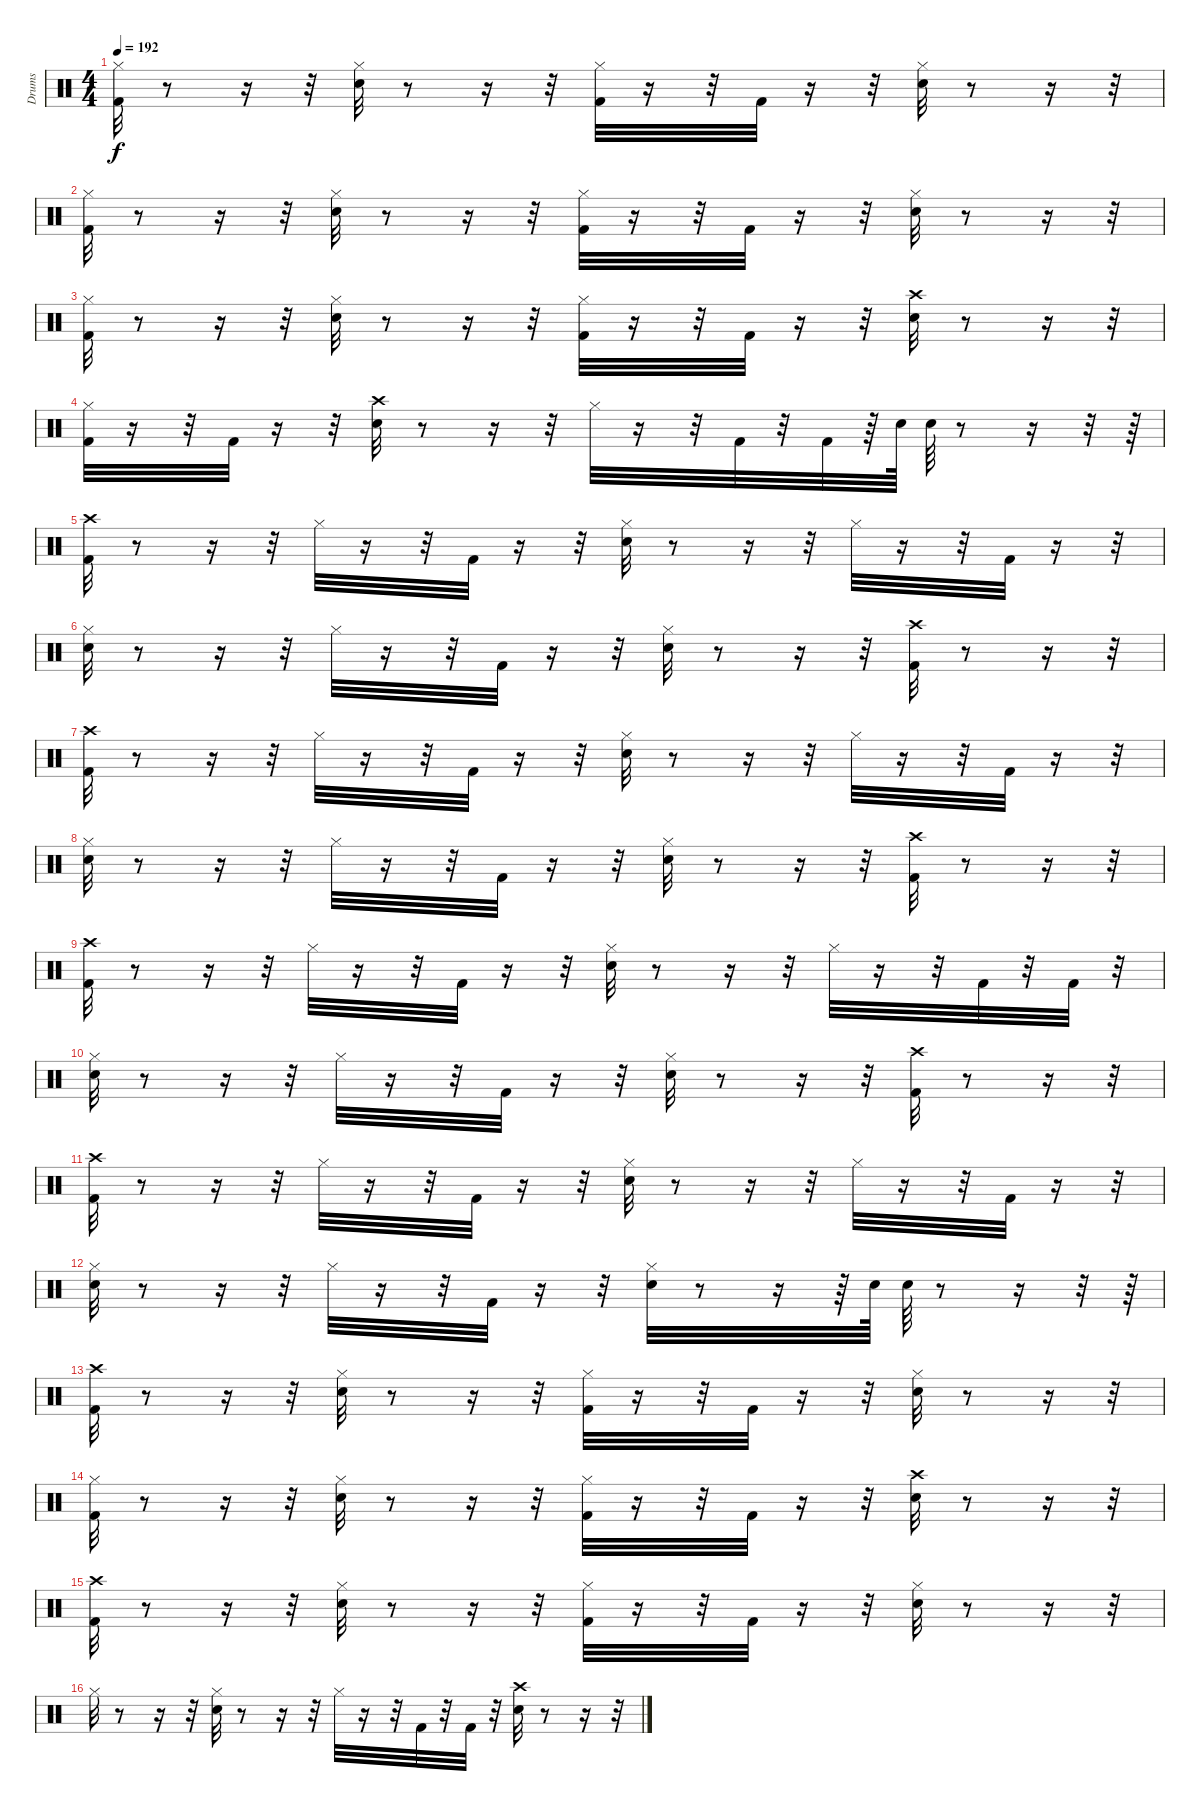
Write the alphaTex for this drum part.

\track ("Drums" "Drums") {instrument percussion}
\staff {score}
\articulation defaults
\ts (4 4)
\tempo 192
\clef neutral
\ks c
("Kick (hit) 2" "Hi-Hat (closed)").32{dy f} r.8 r.16 r.32 ("Snare (hit) 2" "Hi-Hat (closed)").32 r.8 r.16 r.32 ("Kick (hit) 2" "Hi-Hat (closed)").32 r.16 r.32 "Kick (hit) 2".32 r.16 r.32 ("Snare (hit) 2" "Hi-Hat (closed)").32 r.8 r.16 r.32 |
("Kick (hit) 2" "Hi-Hat (closed)").32 r.8 r.16 r.32 ("Snare (hit) 2" "Hi-Hat (closed)").32 r.8 r.16 r.32 ("Kick (hit) 2" "Hi-Hat (closed)").32 r.16 r.32 "Kick (hit) 2".32 r.16 r.32 ("Snare (hit) 2" "Hi-Hat (closed)").32 r.8 r.16 r.32 |
("Kick (hit) 2" "Hi-Hat (closed)").32 r.8 r.16 r.32 ("Snare (hit) 2" "Hi-Hat (closed)").32 r.8 r.16 r.32 ("Kick (hit) 2" "Hi-Hat (closed)").32 r.16 r.32 "Kick (hit) 2".32 r.16 r.32 ("Crash high (hit)" "Snare (hit) 2").32 r.8 r.16 r.32 |
("Kick (hit) 2" "Hi-Hat (closed)").32 r.16 r.32 "Kick (hit) 2".32 r.16 r.32 ("Crash high (hit)" "Snare (hit) 2").32 r.8 r.16 r.32 "Hi-Hat (closed)".32 r.16 r.32 "Kick (hit) 2".32 r.32 "Kick (hit) 2".32 r.64 "Snare (hit) 2".64 "Snare (hit) 2".64 r.8 r.16 r.32 r.64 |
("Kick (hit) 2" "Crash high (hit)").32 r.8 r.16 r.32 "Hi-Hat (closed)".32 r.16 r.32 "Kick (hit) 2".32 r.16 r.32 ("Hi-Hat (closed)" "Snare (hit) 2").32 r.8 r.16 r.32 "Hi-Hat (closed)".32 r.16 r.32 "Kick (hit) 2".32 r.16 r.32 |
("Hi-Hat (closed)" "Snare (hit) 2").32 r.8 r.16 r.32 "Hi-Hat (closed)".32 r.16 r.32 "Kick (hit) 2".32 r.16 r.32 ("Snare (hit) 2" "Hi-Hat (closed)").32 r.8 r.16 r.32 ("Crash high (hit)" "Kick (hit) 2").32 r.8 r.16 r.32 |
("Kick (hit) 2" "Crash high (hit)").32 r.8 r.16 r.32 "Hi-Hat (closed)".32 r.16 r.32 "Kick (hit) 2".32 r.16 r.32 ("Snare (hit) 2" "Hi-Hat (closed)").32 r.8 r.16 r.32 "Hi-Hat (closed)".32 r.16 r.32 "Kick (hit) 2".32 r.16 r.32 |
("Hi-Hat (closed)" "Snare (hit) 2").32 r.8 r.16 r.32 "Hi-Hat (closed)".32 r.16 r.32 "Kick (hit) 2".32 r.16 r.32 ("Snare (hit) 2" "Hi-Hat (closed)").32 r.8 r.16 r.32 ("Crash high (hit)" "Kick (hit) 2").32 r.8 r.16 r.32 |
("Kick (hit) 2" "Crash high (hit)").32 r.8 r.16 r.32 "Hi-Hat (closed)".32 r.16 r.32 "Kick (hit) 2".32 r.16 r.32 ("Snare (hit) 2" "Hi-Hat (closed)").32 r.8 r.16 r.32 "Hi-Hat (closed)".32 r.16 r.32 "Kick (hit) 2".32 r.32 "Kick (hit) 2".32 r.32 |
("Hi-Hat (closed)" "Snare (hit) 2").32 r.8 r.16 r.32 "Hi-Hat (closed)".32 r.16 r.32 "Kick (hit) 2".32 r.16 r.32 ("Snare (hit) 2" "Hi-Hat (closed)").32 r.8 r.16 r.32 ("Crash high (hit)" "Kick (hit) 2").32 r.8 r.16 r.32 |
("Kick (hit) 2" "Crash high (hit)").32 r.8 r.16 r.32 "Hi-Hat (closed)".32 r.16 r.32 "Kick (hit) 2".32 r.16 r.32 ("Snare (hit) 2" "Hi-Hat (closed)").32 r.8 r.16 r.32 "Hi-Hat (closed)".32 r.16 r.32 "Kick (hit) 2".32 r.16 r.32 |
("Hi-Hat (closed)" "Snare (hit) 2").32 r.8 r.16 r.32 "Hi-Hat (closed)".32 r.16 r.32 "Kick (hit) 2".32 r.16 r.32 ("Snare (hit) 2" "Hi-Hat (closed)").32 r.8 r.16 r.64 "Snare (hit) 2".64 "Snare (hit) 2".64 r.8 r.16 r.32 r.64 |
("Kick (hit) 2" "Crash high (hit)").32 r.8 r.16 r.32 ("Hi-Hat (closed)" "Snare (hit) 2").32 r.8 r.16 r.32 ("Hi-Hat (closed)" "Kick (hit) 2").32 r.16 r.32 "Kick (hit) 2".32 r.16 r.32 ("Snare (hit) 2" "Hi-Hat (closed)").32 r.8 r.16 r.32 |
("Kick (hit) 2" "Hi-Hat (closed)").32 r.8 r.16 r.32 ("Snare (hit) 2" "Hi-Hat (closed)").32 r.8 r.16 r.32 ("Kick (hit) 2" "Hi-Hat (closed)").32 r.16 r.32 "Kick (hit) 2".32 r.16 r.32 ("Crash high (hit)" "Snare (hit) 2").32 r.8 r.16 r.32 |
("Kick (hit) 2" "Crash high (hit)").32 r.8 r.16 r.32 ("Hi-Hat (closed)" "Snare (hit) 2").32 r.8 r.16 r.32 ("Kick (hit) 2" "Hi-Hat (closed)").32 r.16 r.32 "Kick (hit) 2".32 r.16 r.32 ("Hi-Hat (closed)" "Snare (hit) 2").32 r.8 r.16 r.32 |
"Hi-Hat (closed)".32 r.8 r.16 r.32 ("Snare (hit) 2" "Hi-Hat (closed)").32 r.8 r.16 r.32 "Hi-Hat (closed)".32 r.16 r.32 "Kick (hit) 2".32 r.32 "Kick (hit) 2".32 r.32 ("Crash high (hit)" "Snare (hit) 2").32 r.8 r.16 r.32
